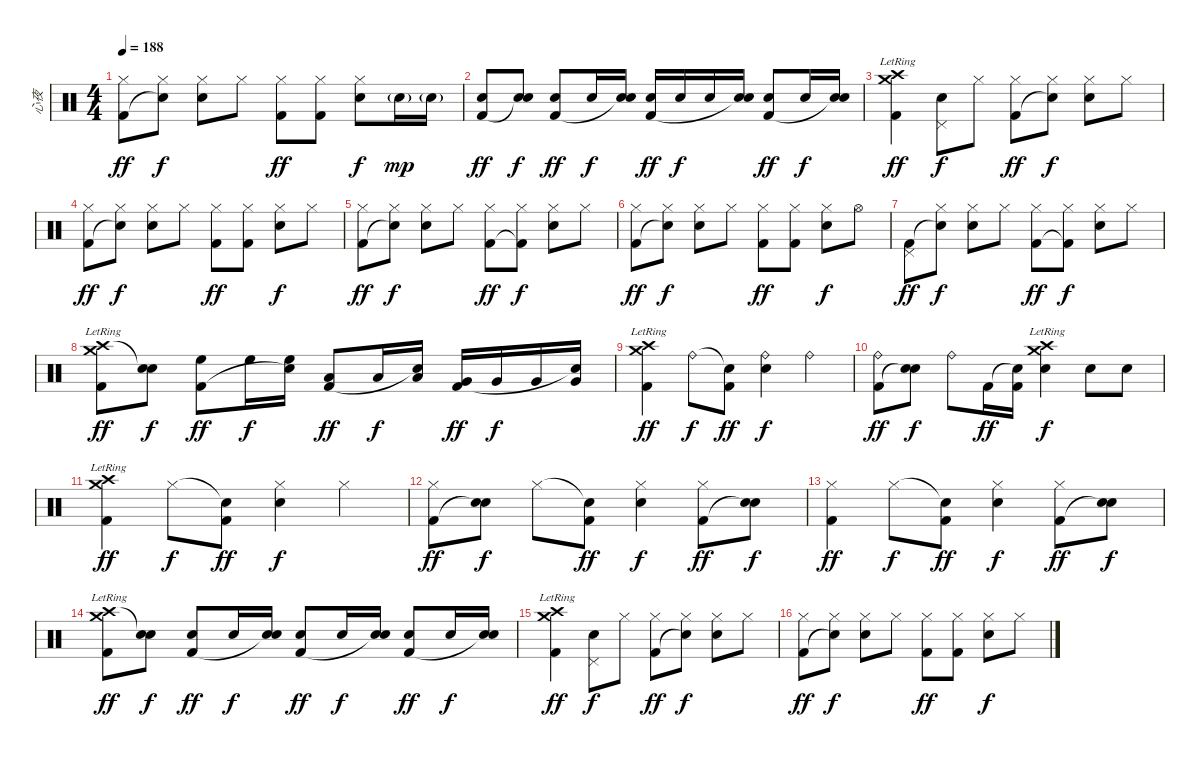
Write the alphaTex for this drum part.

\track ("心夜" "心夜") {instrument percussion}
\staff {score}
\articulation defaults
\ts (4 4)
\tempo 188
\clef neutral
\ks c
("Hi-Hat (closed)" "Kick (hit) 2").8{dy ff} ("Hi-Hat (closed)" "Snare (hit)"{t}).8{dy f} ("Hi-Hat (closed)" "Electric Snare (hit)").8 "Hi-Hat (closed)".8 ("Hi-Hat (closed)" "Kick (hit) 2").8{dy ff} ("Hi-Hat (closed)" "Kick (hit) 2").8 ("Hi-Hat (closed)" "Electric Snare (hit)").8{dy f} "Electric Snare (hit)"{g}.16{dy mp} "Electric Snare (hit)"{g}.16 |
("Electric Snare (hit)" "Kick (hit) 2").8{dy ff} ("Electric Snare (hit)" "Snare (hit)"{t}).8{dy f} ("Electric Snare (hit)" "Kick (hit) 2").8{dy ff} "Electric Snare (hit)".16{dy f} ("Electric Snare (hit)" "Snare (hit)"{t}).16 ("Electric Snare (hit)" "Kick (hit) 2").16{dy ff} "Electric Snare (hit)".16{dy f} "Electric Snare (hit)".16 ("Electric Snare (hit)" "Snare (hit)"{t}).16 ("Electric Snare (hit)" "Kick (hit) 2").8{dy ff} "Electric Snare (hit)".16{dy f} ("Electric Snare (hit)" "Snare (hit)"{t}).16 |
("Crash medium (hit)"{lr} "Crash high (hit)"{lr} "Kick (hit) 2").4{dy ff} ("Pedal Hi-Hat (hit)" "Electric Snare (hit)").8{dy f} "Hi-Hat (closed)".8 ("Hi-Hat (closed)" "Kick (hit) 2").8{dy ff} ("Hi-Hat (closed)" "Snare (hit)"{t}).8{dy f} ("Hi-Hat (closed)" "Electric Snare (hit)").8 "Hi-Hat (closed)".8 |
("Hi-Hat (closed)" "Kick (hit) 2").8{dy ff} ("Hi-Hat (closed)" "Snare (hit)"{t}).8{dy f} ("Hi-Hat (closed)" "Electric Snare (hit)").8 "Hi-Hat (closed)".8 ("Hi-Hat (closed)" "Kick (hit) 2").8{dy ff} ("Hi-Hat (closed)" "Kick (hit) 2").8 ("Hi-Hat (closed)" "Electric Snare (hit)").8{dy f} "Hi-Hat (closed)".8 |
("Hi-Hat (closed)" "Kick (hit) 2").8{dy ff} ("Hi-Hat (closed)" "Snare (hit)"{t}).8{dy f} ("Hi-Hat (closed)" "Electric Snare (hit)").8 "Hi-Hat (closed)".8 ("Hi-Hat (closed)" "Kick (hit) 2").8{dy ff} ("Hi-Hat (closed)" "Kick (hit) 2"{t}).8{dy f} ("Hi-Hat (closed)" "Electric Snare (hit)").8 "Hi-Hat (closed)".8 |
("Hi-Hat (closed)" "Kick (hit) 2").8{dy ff} ("Hi-Hat (closed)" "Snare (hit)"{t}).8{dy f} ("Hi-Hat (closed)" "Electric Snare (hit)").8 "Hi-Hat (closed)".8 ("Hi-Hat (closed)" "Kick (hit) 2").8{dy ff} ("Hi-Hat (closed)" "Kick (hit) 2").8 ("Hi-Hat (closed)" "Electric Snare (hit)").8{dy f} "Hi-Hat (open)".8 |
("Pedal Hi-Hat (hit)" "Kick (hit) 2").8{dy ff} ("Hi-Hat (closed)" "Snare (hit)"{t}).8{dy f} ("Hi-Hat (closed)" "Electric Snare (hit)").8 "Hi-Hat (closed)".8 ("Hi-Hat (closed)" "Kick (hit) 2").8{dy ff} ("Hi-Hat (closed)" "Kick (hit) 2"{t}).8{dy f} ("Hi-Hat (closed)" "Electric Snare (hit)").8 "Hi-Hat (closed)".8 |
("Crash medium (hit)"{lr} "Crash high (hit)"{lr} "Kick (hit) 2").8{dy ff} ("Electric Snare (hit)" "Snare (hit)"{t}).8{dy f} ("High Floor Tom (hit)" "Kick (hit) 2").8{dy ff} "High Floor Tom (hit)".16{dy f} ("High Floor Tom (hit)" "Snare (hit)"{t}).16 ("Low Tom (hit)" "Kick (hit) 2").8{dy ff} "Low Tom (hit)".16{dy f} ("Low Tom (hit)" "Snare (hit)"{t}).16 ("Very Low Tom (hit)" "Kick (hit) 2").16{dy ff} "Very Low Tom (hit)".16{dy f} "Very Low Tom (hit)".16 ("Very Low Tom (hit)" "Snare (hit)"{t}).16 |
("Crash medium (hit)"{lr} "Crash high (hit)"{lr} "Kick (hit) 2").4{dy ff} "Ride (bell)".8{dy f} ("Snare (hit)"{t} "Kick (hit) 2").8{dy ff} ("Ride (bell)" "Electric Snare (hit)").4{dy f} "Ride (bell)".4 |
("Ride (bell)" "Kick (hit) 2").8{dy ff} ("Electric Snare (hit)" "Snare (hit)"{t}).8{dy f} "Ride (bell)".8 "Kick (hit) 2".16{dy ff} ("Snare (hit)"{t} "Kick (hit) 2").16 ("Crash medium (hit)"{lr} "Electric Snare (hit)" "Crash high (hit)"{lr}).4{dy f} "Electric Snare (hit)".8 "Electric Snare (hit)".8 |
("Crash medium (hit)"{lr} "Crash high (hit)"{lr} "Kick (hit) 2").4{dy ff} "Hi-Hat (closed)".8{dy f} ("Snare (hit)"{t} "Kick (hit) 2").8{dy ff} ("Hi-Hat (closed)" "Electric Snare (hit)").4{dy f} "Hi-Hat (closed)".4 |
("Hi-Hat (closed)" "Kick (hit) 2").8{dy ff} ("Electric Snare (hit)" "Snare (hit)"{t}).8{dy f} "Hi-Hat (closed)".8 ("Snare (hit)"{t} "Kick (hit) 2").8{dy ff} ("Hi-Hat (closed)" "Electric Snare (hit)").4{dy f} ("Hi-Hat (closed)" "Kick (hit) 2").8{dy ff} ("Electric Snare (hit)" "Snare (hit)"{t}).8{dy f} |
("Hi-Hat (closed)" "Kick (hit) 2").4{dy ff} "Hi-Hat (closed)".8{dy f} ("Snare (hit)"{t} "Kick (hit) 2").8{dy ff} ("Hi-Hat (closed)" "Electric Snare (hit)").4{dy f} ("Hi-Hat (closed)" "Kick (hit) 2").8{dy ff} ("Electric Snare (hit)" "Snare (hit)"{t}).8{dy f} |
("Crash medium (hit)"{lr} "Crash high (hit)"{lr} "Kick (hit) 2").8{dy ff} ("Electric Snare (hit)" "Snare (hit)"{t}).8{dy f} ("Electric Snare (hit)" "Kick (hit) 2").8{dy ff} "Electric Snare (hit)".16{dy f} ("Electric Snare (hit)" "Snare (hit)"{t}).16 ("Electric Snare (hit)" "Kick (hit) 2").8{dy ff} "Electric Snare (hit)".16{dy f} ("Electric Snare (hit)" "Snare (hit)"{t}).16 ("Electric Snare (hit)" "Kick (hit) 2").8{dy ff} "Electric Snare (hit)".16{dy f} ("Electric Snare (hit)" "Snare (hit)"{t}).16 |
("Crash medium (hit)"{lr} "Crash high (hit)"{lr} "Kick (hit) 2").4{dy ff} ("Pedal Hi-Hat (hit)" "Electric Snare (hit)").8{dy f} "Hi-Hat (closed)".8 ("Hi-Hat (closed)" "Kick (hit) 2").8{dy ff} ("Hi-Hat (closed)" "Snare (hit)"{t}).8{dy f} ("Hi-Hat (closed)" "Electric Snare (hit)").8 "Hi-Hat (closed)".8 |
("Hi-Hat (closed)" "Kick (hit) 2").8{dy ff} ("Hi-Hat (closed)" "Snare (hit)"{t}).8{dy f} ("Hi-Hat (closed)" "Electric Snare (hit)").8 "Hi-Hat (closed)".8 ("Hi-Hat (closed)" "Kick (hit) 2").8{dy ff} ("Hi-Hat (closed)" "Kick (hit) 2").8 ("Hi-Hat (closed)" "Electric Snare (hit)").8{dy f} "Hi-Hat (closed)".8
